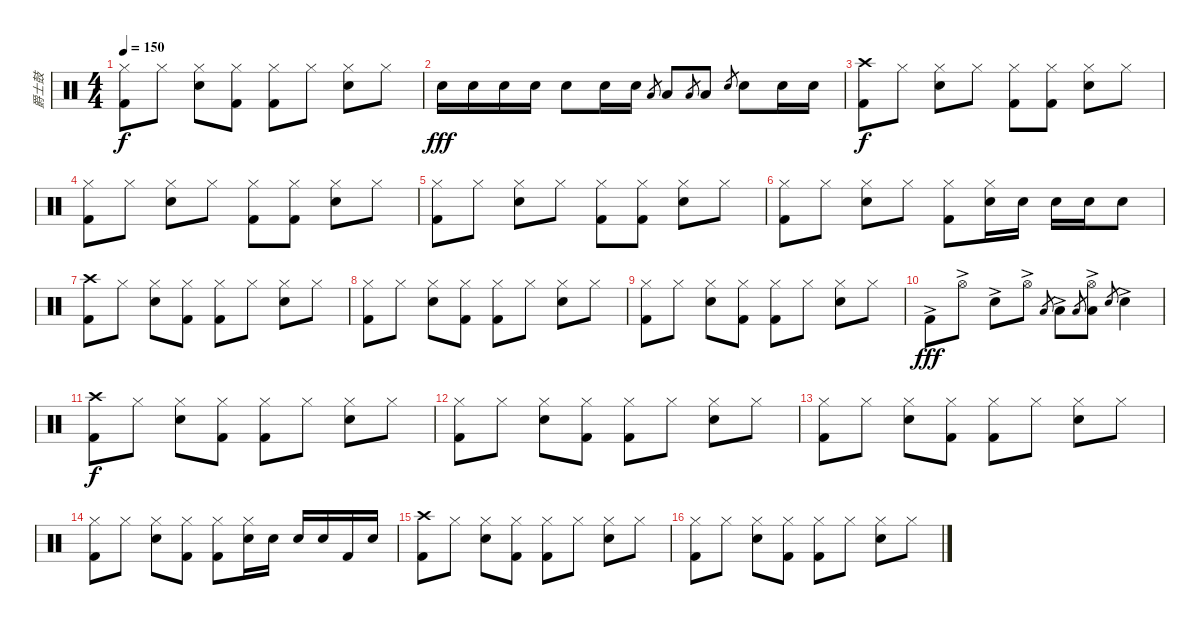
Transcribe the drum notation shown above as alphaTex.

\track ("爵士鼓" "爵士鼓") {instrument percussion}
\staff {score}
\articulation defaults
\ts (4 4)
\tempo 150
\clef neutral
\ks c
("Hi-Hat (closed)" "Kick (hit) 2").8{dy f} "Hi-Hat (closed)".8 ("Hi-Hat (closed)" "Electric Snare (hit)").8 ("Hi-Hat (closed)" "Kick (hit) 2").8 ("Hi-Hat (closed)" "Kick (hit) 2").8 "Hi-Hat (closed)".8 ("Hi-Hat (closed)" "Electric Snare (hit)").8 "Hi-Hat (closed)".8 |
"Electric Snare (hit)".16{dy fff} "Electric Snare (hit)".16 "Electric Snare (hit)".16 "Electric Snare (hit)".16 "Electric Snare (hit)".8 "Electric Snare (hit)".16 "Electric Snare (hit)".16 "Low Tom (hit)".8{gr} "Low Tom (hit)".8 "Low Tom (hit)".8{gr} "Low Tom (hit)".8 "Electric Snare (hit)".8{gr} "Electric Snare (hit)".8 "Electric Snare (hit)".16 "Electric Snare (hit)".16 |
("Crash high (hit)" "Kick (hit) 2").8{dy f} "Hi-Hat (closed)".8 ("Hi-Hat (closed)" "Electric Snare (hit)").8 "Hi-Hat (closed)".8 ("Hi-Hat (closed)" "Kick (hit) 2").8 ("Hi-Hat (closed)" "Kick (hit) 2").8 ("Hi-Hat (closed)" "Electric Snare (hit)").8 "Hi-Hat (closed)".8 |
("Hi-Hat (closed)" "Kick (hit) 2").8 "Hi-Hat (closed)".8 ("Hi-Hat (closed)" "Electric Snare (hit)").8 "Hi-Hat (closed)".8 ("Hi-Hat (closed)" "Kick (hit) 2").8 ("Hi-Hat (closed)" "Kick (hit) 2").8 ("Hi-Hat (closed)" "Electric Snare (hit)").8 "Hi-Hat (closed)".8 |
("Hi-Hat (closed)" "Kick (hit) 2").8 "Hi-Hat (closed)".8 ("Hi-Hat (closed)" "Electric Snare (hit)").8 "Hi-Hat (closed)".8 ("Hi-Hat (closed)" "Kick (hit) 2").8 ("Hi-Hat (closed)" "Kick (hit) 2").8 ("Hi-Hat (closed)" "Electric Snare (hit)").8 "Hi-Hat (closed)".8 |
("Hi-Hat (closed)" "Kick (hit) 2").8 "Hi-Hat (closed)".8 ("Hi-Hat (closed)" "Electric Snare (hit)").8 "Hi-Hat (closed)".8 ("Hi-Hat (closed)" "Kick (hit) 2").8 ("Hi-Hat (closed)" "Electric Snare (hit)").16 "Electric Snare (hit)".16 "Electric Snare (hit)".16 "Electric Snare (hit)".16 "Electric Snare (hit)".8 |
("Crash high (hit)" "Kick (hit) 2").8 "Hi-Hat (closed)".8 ("Hi-Hat (closed)" "Electric Snare (hit)").8 ("Hi-Hat (closed)" "Kick (hit) 2").8 ("Hi-Hat (closed)" "Kick (hit) 2").8 "Hi-Hat (closed)".8 ("Hi-Hat (closed)" "Electric Snare (hit)").8 "Hi-Hat (closed)".8 |
("Hi-Hat (closed)" "Kick (hit) 2").8 "Hi-Hat (closed)".8 ("Hi-Hat (closed)" "Electric Snare (hit)").8 ("Hi-Hat (closed)" "Kick (hit) 2").8 ("Hi-Hat (closed)" "Kick (hit) 2").8 "Hi-Hat (closed)".8 ("Hi-Hat (closed)" "Electric Snare (hit)").8 "Hi-Hat (closed)".8 |
("Hi-Hat (closed)" "Kick (hit) 2").8 "Hi-Hat (closed)".8 ("Hi-Hat (closed)" "Electric Snare (hit)").8 ("Hi-Hat (closed)" "Kick (hit) 2").8 ("Hi-Hat (closed)" "Kick (hit) 2").8 "Hi-Hat (closed)".8 ("Hi-Hat (closed)" "Electric Snare (hit)").8 "Hi-Hat (closed)".8 |
"Kick (hit) 2"{ac}.8{dy fff} "Hi-Hat (open)"{ac}.8 "Electric Snare (hit)"{ac}.8 "Hi-Hat (open)"{ac}.8 "Low Tom (hit)".8{gr} "Low Tom (hit)"{ac}.8 "Low Tom (hit)".8{gr} ("Low Tom (hit)"{ac} "Hi-Hat (open)").8 "Electric Snare (hit)".8{gr} "Electric Snare (hit)"{ac}.4 |
("Crash high (hit)" "Kick (hit) 2").8{dy f} "Hi-Hat (closed)".8 ("Hi-Hat (closed)" "Electric Snare (hit)").8 ("Hi-Hat (closed)" "Kick (hit) 2").8 ("Hi-Hat (closed)" "Kick (hit) 2").8 "Hi-Hat (closed)".8 ("Hi-Hat (closed)" "Electric Snare (hit)").8 "Hi-Hat (closed)".8 |
("Hi-Hat (closed)" "Kick (hit) 2").8 "Hi-Hat (closed)".8 ("Hi-Hat (closed)" "Electric Snare (hit)").8 ("Hi-Hat (closed)" "Kick (hit) 2").8 ("Hi-Hat (closed)" "Kick (hit) 2").8 "Hi-Hat (closed)".8 ("Hi-Hat (closed)" "Electric Snare (hit)").8 "Hi-Hat (closed)".8 |
("Hi-Hat (closed)" "Kick (hit) 2").8 "Hi-Hat (closed)".8 ("Hi-Hat (closed)" "Electric Snare (hit)").8 ("Hi-Hat (closed)" "Kick (hit) 2").8 ("Hi-Hat (closed)" "Kick (hit) 2").8 "Hi-Hat (closed)".8 ("Hi-Hat (closed)" "Electric Snare (hit)").8 "Hi-Hat (closed)".8 |
("Hi-Hat (closed)" "Kick (hit) 2").8 "Hi-Hat (closed)".8 ("Hi-Hat (closed)" "Electric Snare (hit)").8 ("Hi-Hat (closed)" "Kick (hit) 2").8 ("Hi-Hat (closed)" "Kick (hit) 2").8 ("Hi-Hat (closed)" "Electric Snare (hit)").16 "Electric Snare (hit)".16 "Electric Snare (hit)".16 "Electric Snare (hit)".16 "Kick (hit) 2".16 "Electric Snare (hit)".16 |
("Crash high (hit)" "Kick (hit) 2").8 "Hi-Hat (closed)".8 ("Hi-Hat (closed)" "Electric Snare (hit)").8 ("Hi-Hat (closed)" "Kick (hit) 2").8 ("Hi-Hat (closed)" "Kick (hit) 2").8 "Hi-Hat (closed)".8 ("Hi-Hat (closed)" "Electric Snare (hit)").8 "Hi-Hat (closed)".8 |
("Hi-Hat (closed)" "Kick (hit) 2").8 "Hi-Hat (closed)".8 ("Hi-Hat (closed)" "Electric Snare (hit)").8 ("Hi-Hat (closed)" "Kick (hit) 2").8 ("Hi-Hat (closed)" "Kick (hit) 2").8 "Hi-Hat (closed)".8 ("Hi-Hat (closed)" "Electric Snare (hit)").8 "Hi-Hat (closed)".8
